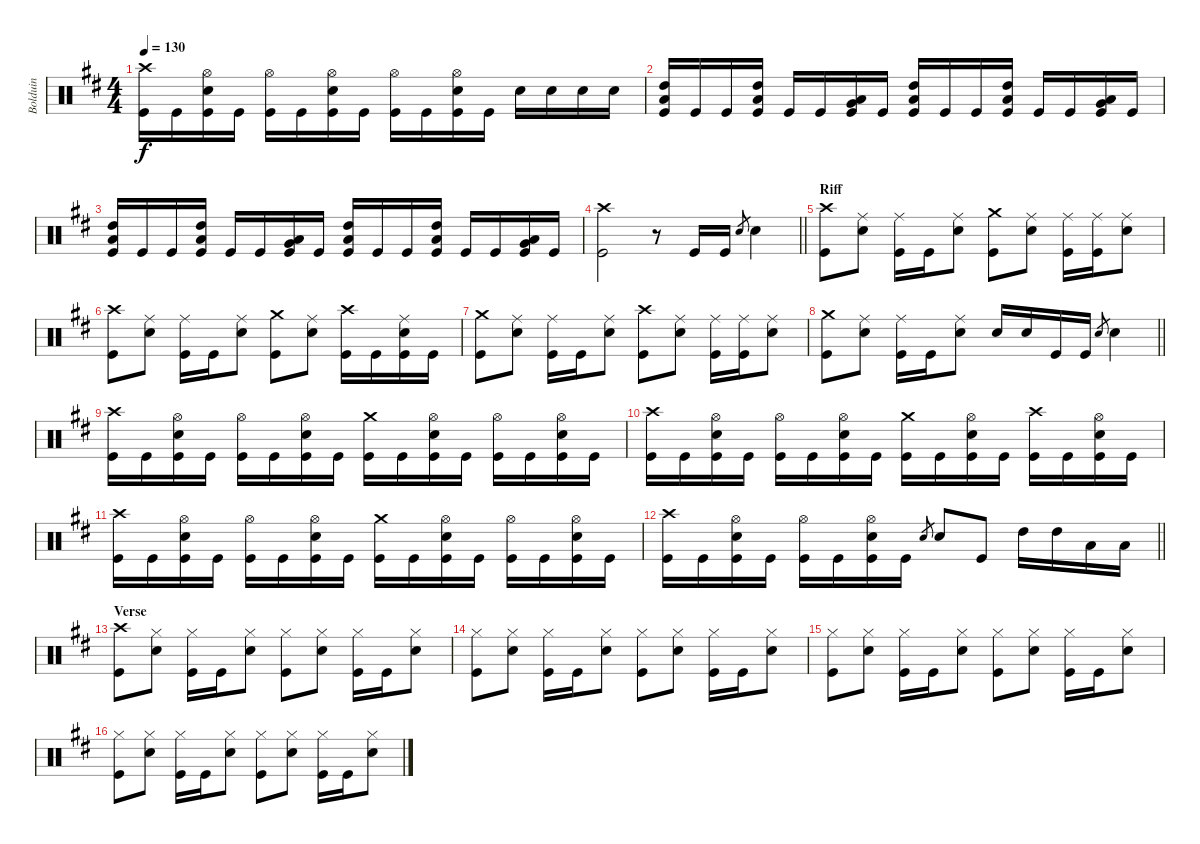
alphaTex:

\track ("Bolduin" "Bolduin") {instrument percussion}
\staff {score}
\articulation defaults
\ts (4 4)
\tempo 130
\clef neutral
\ks bminor
("Kick (hit)" "Crash high (hit)").16{dy f} "Kick (hit)".16 ("Kick (hit)" "Hi-Hat (open)" "Snare (hit) 2").16 "Kick (hit)".16 ("Kick (hit)" "Hi-Hat (open)").16 "Kick (hit)".16 ("Kick (hit)" "Hi-Hat (open)" "Snare (hit) 2").16 "Kick (hit)".16 ("Kick (hit)" "Hi-Hat (open)").16 "Kick (hit)".16 ("Kick (hit)" "Hi-Hat (open)" "Snare (hit) 2").16 "Kick (hit)".16 "Snare (hit) 2".16 "Snare (hit) 2".16 "Snare (hit) 2".16 "Snare (hit) 2".16 |
("High Tom (hit)" "Kick (hit)" "Low Tom (hit)").16 "Kick (hit)".16 "Kick (hit)".16 ("High Tom (hit)" "Kick (hit)" "Low Tom (hit)").16 "Kick (hit)".16 "Kick (hit)".16 ("Low Tom (hit)" "Kick (hit)" "Very Low Tom (hit)").16 "Kick (hit)".16 ("High Tom (hit)" "Kick (hit)" "Low Tom (hit)").16 "Kick (hit)".16 "Kick (hit)".16 ("High Tom (hit)" "Kick (hit)" "Low Tom (hit)").16 "Kick (hit)".16 "Kick (hit)".16 ("Low Tom (hit)" "Kick (hit)" "Very Low Tom (hit)").16 "Kick (hit)".16 |
("High Tom (hit)" "Kick (hit)" "Low Tom (hit)").16 "Kick (hit)".16 "Kick (hit)".16 ("High Tom (hit)" "Kick (hit)" "Low Tom (hit)").16 "Kick (hit)".16 "Kick (hit)".16 ("Low Tom (hit)" "Kick (hit)" "Very Low Tom (hit)").16 "Kick (hit)".16 ("High Tom (hit)" "Kick (hit)" "Low Tom (hit)").16 "Kick (hit)".16 "Kick (hit)".16 ("High Tom (hit)" "Kick (hit)" "Low Tom (hit)").16 "Kick (hit)".16 "Kick (hit)".16 ("Low Tom (hit)" "Kick (hit)" "Very Low Tom (hit)").16 "Kick (hit)".16 |
\barLineRight lightlight
("Kick (hit)" "Crash high (hit)").2 r.8 "Kick (hit)".16 "Kick (hit)".16 "Snare (hit) 2".8{gr} "Snare (hit) 2".4 |
\section ("" "Riff")
("Crash high (hit)" "Kick (hit)").8 ("Ride (middle)" "Snare (hit) 2").8 ("Ride (middle)" "Kick (hit)").16 "Kick (hit)".16 ("Ride (middle)" "Snare (hit) 2").8 ("Crash medium (hit)" "Kick (hit)").8 ("Ride (middle)" "Snare (hit) 2").8 ("Ride (middle)" "Kick (hit)").16 ("Ride (middle)" "Kick (hit)").16 ("Ride (middle)" "Snare (hit) 2").8 |
("Crash high (hit)" "Kick (hit)").8 ("Ride (middle)" "Snare (hit) 2").8 ("Ride (middle)" "Kick (hit)").16 "Kick (hit)".16 ("Ride (middle)" "Snare (hit) 2").8 ("Crash medium (hit)" "Kick (hit)").8 ("Ride (middle)" "Snare (hit) 2").8 ("Crash high (hit)" "Kick (hit)").16 "Kick (hit)".16 ("Ride (middle)" "Snare (hit) 2" "Kick (hit)").16 "Kick (hit)".16 |
("Crash medium (hit)" "Kick (hit)").8 ("Ride (middle)" "Snare (hit) 2").8 ("Ride (middle)" "Kick (hit)").16 "Kick (hit)".16 ("Ride (middle)" "Snare (hit) 2").8 ("Crash high (hit)" "Kick (hit)").8 ("Ride (middle)" "Snare (hit) 2").8 ("Ride (middle)" "Kick (hit)").16 ("Ride (middle)" "Kick (hit)").16 ("Ride (middle)" "Snare (hit) 2").8 |
\barLineRight lightlight
("Crash medium (hit)" "Kick (hit)").8 ("Ride (middle)" "Snare (hit) 2").8 ("Ride (middle)" "Kick (hit)").16 "Kick (hit)".16 ("Ride (middle)" "Snare (hit) 2").8 "Snare (hit) 2".16 "Snare (hit) 2".16 "Kick (hit)".16 "Kick (hit)".16 "Snare (hit) 2".8{gr} "Snare (hit) 2".4 |
("Kick (hit)" "Crash high (hit)").16 "Kick (hit)".16 ("Kick (hit)" "Hi-Hat (open)" "Snare (hit) 2").16 "Kick (hit)".16 ("Kick (hit)" "Hi-Hat (open)").16 "Kick (hit)".16 ("Kick (hit)" "Hi-Hat (open)" "Snare (hit) 2").16 "Kick (hit)".16 ("Kick (hit)" "Crash medium (hit)").16 "Kick (hit)".16 ("Kick (hit)" "Hi-Hat (open)" "Snare (hit) 2").16 "Kick (hit)".16 ("Kick (hit)" "Hi-Hat (open)").16 "Kick (hit)".16 ("Kick (hit)" "Hi-Hat (open)" "Snare (hit) 2").16 "Kick (hit)".16 |
("Kick (hit)" "Crash high (hit)").16 "Kick (hit)".16 ("Kick (hit)" "Hi-Hat (open)" "Snare (hit) 2").16 "Kick (hit)".16 ("Kick (hit)" "Hi-Hat (open)").16 "Kick (hit)".16 ("Kick (hit)" "Hi-Hat (open)" "Snare (hit) 2").16 "Kick (hit)".16 ("Kick (hit)" "Crash medium (hit)").16 "Kick (hit)".16 ("Kick (hit)" "Hi-Hat (open)" "Snare (hit) 2").16 "Kick (hit)".16 ("Kick (hit)" "Crash high (hit)").16 "Kick (hit)".16 ("Kick (hit)" "Hi-Hat (open)" "Snare (hit) 2").16 "Kick (hit)".16 |
("Kick (hit)" "Crash high (hit)").16 "Kick (hit)".16 ("Kick (hit)" "Hi-Hat (open)" "Snare (hit) 2").16 "Kick (hit)".16 ("Kick (hit)" "Hi-Hat (open)").16 "Kick (hit)".16 ("Kick (hit)" "Hi-Hat (open)" "Snare (hit) 2").16 "Kick (hit)".16 ("Kick (hit)" "Crash medium (hit)").16 "Kick (hit)".16 ("Kick (hit)" "Hi-Hat (open)" "Snare (hit) 2").16 "Kick (hit)".16 ("Kick (hit)" "Hi-Hat (open)").16 "Kick (hit)".16 ("Kick (hit)" "Hi-Hat (open)" "Snare (hit) 2").16 "Kick (hit)".16 |
\barLineRight lightlight
("Kick (hit)" "Crash high (hit)").16 "Kick (hit)".16 ("Kick (hit)" "Hi-Hat (open)" "Snare (hit) 2").16 "Kick (hit)".16 ("Kick (hit)" "Hi-Hat (open)").16 "Kick (hit)".16 ("Kick (hit)" "Hi-Hat (open)" "Snare (hit) 2").16 "Kick (hit)".16 "Snare (hit) 2".8{gr} "Snare (hit) 2".8 "Kick (hit)".8 "High Tom (hit)".16 "High Tom (hit)".16 "Low Tom (hit)".16 "Low Tom (hit)".16 |
\section ("" "Verse")
("Crash high (hit)" "Kick (hit)").8 ("Hi-Hat (closed)" "Snare (hit) 2").8 ("Hi-Hat (closed)" "Kick (hit)").16 "Kick (hit)".16 ("Hi-Hat (closed)" "Snare (hit) 2").8 ("Hi-Hat (closed)" "Kick (hit)").8 ("Hi-Hat (closed)" "Snare (hit) 2").8 ("Hi-Hat (closed)" "Kick (hit)").16 "Kick (hit)".16 ("Hi-Hat (closed)" "Snare (hit) 2").8 |
("Hi-Hat (closed)" "Kick (hit)").8 ("Hi-Hat (closed)" "Snare (hit) 2").8 ("Hi-Hat (closed)" "Kick (hit)").16 "Kick (hit)".16 ("Hi-Hat (closed)" "Snare (hit) 2").8 ("Hi-Hat (closed)" "Kick (hit)").8 ("Hi-Hat (closed)" "Snare (hit) 2").8 ("Hi-Hat (closed)" "Kick (hit)").16 "Kick (hit)".16 ("Hi-Hat (closed)" "Snare (hit) 2").8 |
("Hi-Hat (closed)" "Kick (hit)").8 ("Hi-Hat (closed)" "Snare (hit) 2").8 ("Hi-Hat (closed)" "Kick (hit)").16 "Kick (hit)".16 ("Hi-Hat (closed)" "Snare (hit) 2").8 ("Hi-Hat (closed)" "Kick (hit)").8 ("Hi-Hat (closed)" "Snare (hit) 2").8 ("Hi-Hat (closed)" "Kick (hit)").16 "Kick (hit)".16 ("Hi-Hat (closed)" "Snare (hit) 2").8 |
("Hi-Hat (closed)" "Kick (hit)").8 ("Hi-Hat (closed)" "Snare (hit) 2").8 ("Hi-Hat (closed)" "Kick (hit)").16 "Kick (hit)".16 ("Hi-Hat (closed)" "Snare (hit) 2").8 ("Hi-Hat (closed)" "Kick (hit)").8 ("Hi-Hat (closed)" "Snare (hit) 2").8 ("Hi-Hat (closed)" "Kick (hit)").16 "Kick (hit)".16 ("Hi-Hat (closed)" "Snare (hit) 2").8
